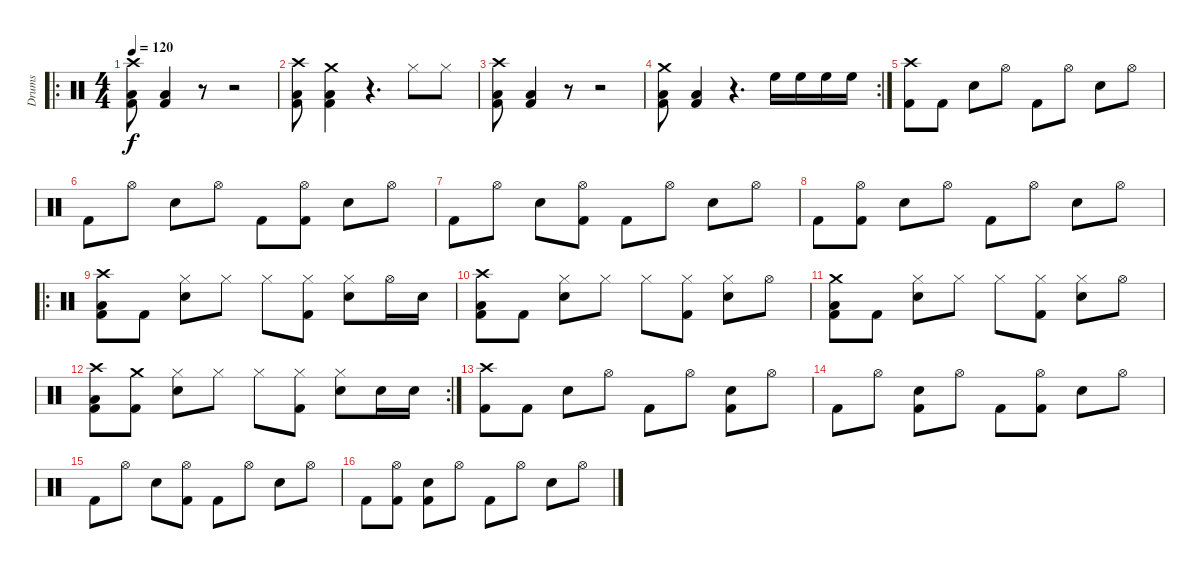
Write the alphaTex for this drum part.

\track ("Drums" "Drums") {instrument percussion}
\staff {score}
\articulation defaults
\ro
\ts (4 4)
\tempo 120
\clef neutral
\ks c
("Crash high (hit)" "Low Tom (hit)" "Kick (hit) 2").8{dy f} ("Low Tom (hit)" "Kick (hit) 2").4 r.8 r.2 |
("Crash high (hit)" "Low Tom (hit)" "Kick (hit) 2").8 ("Crash medium (hit)" "Low Tom (hit)" "Kick (hit) 2").4 r.4{d} "Hi-Hat (closed)".8 "Hi-Hat (closed)".8 |
("Crash high (hit)" "Low Tom (hit)" "Kick (hit) 2").8 ("Low Tom (hit)" "Kick (hit) 2").4 r.8 r.2 |
\rc 2
("Crash medium (hit)" "Low Tom (hit)" "Kick (hit) 2").8 ("Low Tom (hit)" "Kick (hit) 2").4 r.4{d} "High Floor Tom (hit)".16 "High Floor Tom (hit)".16 "High Floor Tom (hit)".16 "High Floor Tom (hit)".16 |
("Crash high (hit)" "Kick (hit) 2").8 "Kick (hit) 2".8 "Snare (hit) 2".8 "Hi-Hat (open)".8 "Kick (hit) 2".8 "Hi-Hat (open)".8 "Snare (hit) 2".8 "Hi-Hat (open)".8 |
"Kick (hit) 2".8 "Hi-Hat (open)".8 "Snare (hit) 2".8 "Hi-Hat (open)".8 "Kick (hit) 2".8 ("Hi-Hat (open)" "Kick (hit) 2").8 "Snare (hit) 2".8 "Hi-Hat (open)".8 |
"Kick (hit) 2".8 "Hi-Hat (open)".8 "Snare (hit) 2".8 ("Hi-Hat (open)" "Kick (hit) 2").8 "Kick (hit) 2".8 "Hi-Hat (open)".8 "Snare (hit) 2".8 "Hi-Hat (open)".8 |
"Kick (hit) 2".8 ("Hi-Hat (open)" "Kick (hit) 2").8 "Snare (hit) 2".8 "Hi-Hat (open)".8 "Kick (hit) 2".8 "Hi-Hat (open)".8 "Snare (hit) 2".8 "Hi-Hat (open)".8 |
\ro
("Crash high (hit)" "Low Tom (hit)" "Kick (hit) 2").8 "Kick (hit) 2".8 ("Hi-Hat (closed)" "Snare (hit) 2").8 "Hi-Hat (closed)".8 "Hi-Hat (closed)".8 ("Hi-Hat (closed)" "Kick (hit) 2").8 ("Hi-Hat (closed)" "Snare (hit) 2").8 "Hi-Hat (open)".16 "Snare (hit) 2".16 |
("Crash high (hit)" "Low Tom (hit)" "Kick (hit) 2").8 "Kick (hit) 2".8 ("Hi-Hat (closed)" "Snare (hit) 2").8 "Hi-Hat (closed)".8 "Hi-Hat (closed)".8 ("Hi-Hat (closed)" "Kick (hit) 2").8 ("Hi-Hat (closed)" "Snare (hit) 2").8 "Hi-Hat (open)".8 |
("Crash medium (hit)" "Low Tom (hit)" "Kick (hit) 2").8 "Kick (hit) 2".8 ("Hi-Hat (closed)" "Snare (hit) 2").8 "Hi-Hat (closed)".8 "Hi-Hat (closed)".8 ("Hi-Hat (closed)" "Kick (hit) 2").8 ("Hi-Hat (closed)" "Snare (hit) 2").8 "Hi-Hat (open)".8 |
\rc 2
("Crash high (hit)" "Low Tom (hit)" "Kick (hit) 2").8 ("Crash medium (hit)" "Kick (hit) 2").8 ("Hi-Hat (closed)" "Snare (hit) 2").8 "Hi-Hat (closed)".8 "Hi-Hat (closed)".8 ("Hi-Hat (closed)" "Kick (hit) 2").8 ("Hi-Hat (closed)" "Snare (hit) 2").8 "Snare (hit) 2".16 "Snare (hit) 2".16 |
("Crash high (hit)" "Kick (hit) 2").8 "Kick (hit) 2".8 "Snare (hit) 2".8 "Hi-Hat (open)".8 "Kick (hit) 2".8 "Hi-Hat (open)".8 ("Snare (hit) 2" "Kick (hit) 2").8 "Hi-Hat (open)".8 |
"Kick (hit) 2".8 "Hi-Hat (open)".8 ("Snare (hit) 2" "Kick (hit) 2").8 "Hi-Hat (open)".8 "Kick (hit) 2".8 ("Hi-Hat (open)" "Kick (hit) 2").8 "Snare (hit) 2".8 "Hi-Hat (open)".8 |
"Kick (hit) 2".8 "Hi-Hat (open)".8 "Snare (hit) 2".8 ("Hi-Hat (open)" "Kick (hit) 2").8 "Kick (hit) 2".8 "Hi-Hat (open)".8 "Snare (hit) 2".8 "Hi-Hat (open)".8 |
"Kick (hit) 2".8 ("Hi-Hat (open)" "Kick (hit) 2").8 ("Snare (hit) 2" "Kick (hit) 2").8 "Hi-Hat (open)".8 "Kick (hit) 2".8 "Hi-Hat (open)".8 "Snare (hit) 2".8 "Hi-Hat (open)".8
